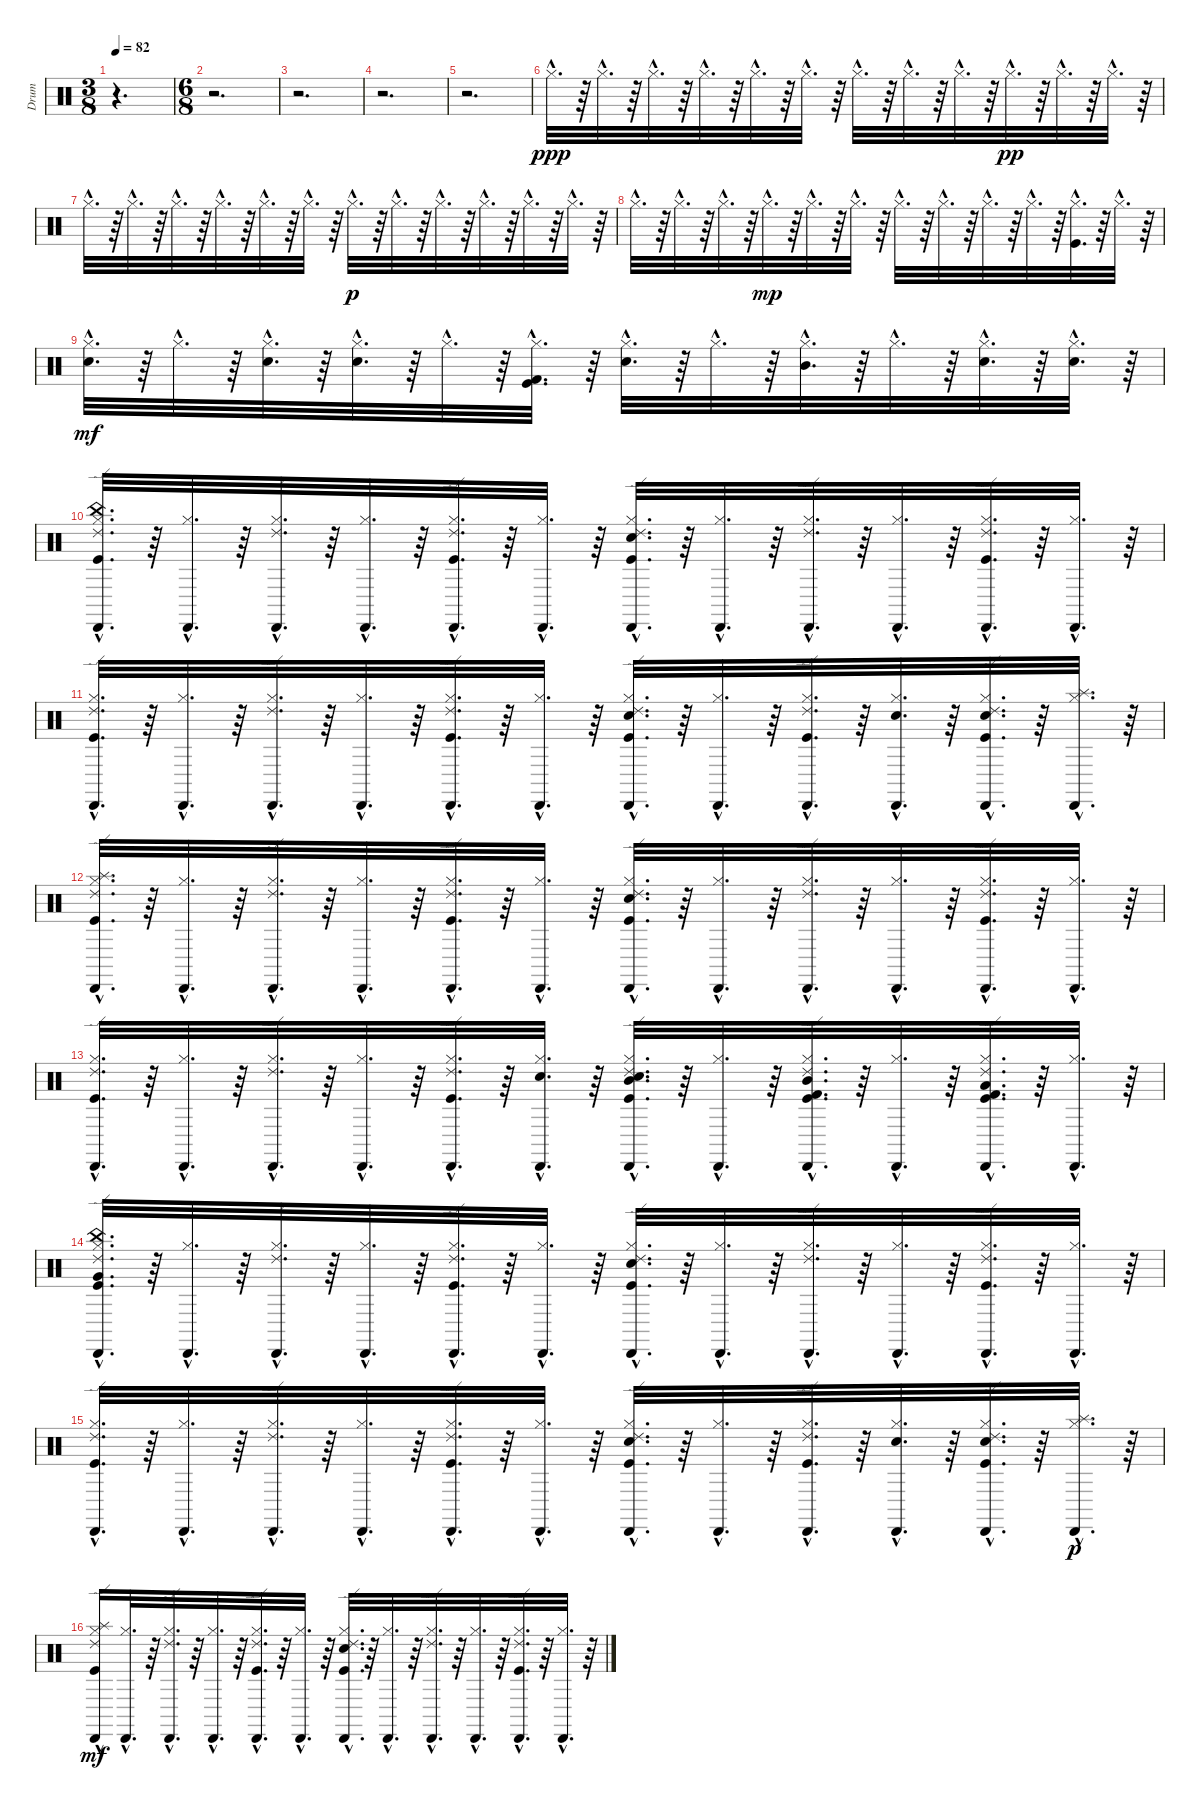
\track ("Drum" "Drum") {instrument percussion}
\staff {score}
\articulation defaults
\ts (3 8)
\tempo 82
\clef neutral
\ks c
r.4{d dy ppp} |
\ts (6 8)
r.2{d} |
r.2{d} |
r.2{d} |
r.2{d} |
"Hi-Hat (closed)"{hac}.32{d} r.64 "Hi-Hat (closed)"{hac}.32{d} r.64 "Hi-Hat (closed)"{hac}.32{d} r.64 "Hi-Hat (closed)"{hac}.32{d} r.64 "Hi-Hat (closed)"{hac}.32{d} r.64 "Hi-Hat (closed)"{hac}.32{d} r.64 "Hi-Hat (closed)"{hac}.32{d} r.64 "Hi-Hat (closed)"{hac}.32{d} r.64 "Hi-Hat (closed)"{hac}.32{d} r.64 "Hi-Hat (closed)"{hac}.32{d dy pp} r.64 "Hi-Hat (closed)"{hac}.32{d} r.64 "Hi-Hat (closed)"{hac}.32{d} r.64 |
"Hi-Hat (closed)"{hac}.32{d} r.64 "Hi-Hat (closed)"{hac}.32{d} r.64 "Hi-Hat (closed)"{hac}.32{d} r.64 "Hi-Hat (closed)"{hac}.32{d} r.64 "Hi-Hat (closed)"{hac}.32{d} r.64 "Hi-Hat (closed)"{hac}.32{d} r.64 "Hi-Hat (closed)"{hac}.32{d dy p} r.64 "Hi-Hat (closed)"{hac}.32{d} r.64 "Hi-Hat (closed)"{hac}.32{d} r.64 "Hi-Hat (closed)"{hac}.32{d} r.64 "Hi-Hat (closed)"{hac}.32{d} r.64 "Hi-Hat (closed)"{hac}.32{d} r.64 |
"Hi-Hat (closed)"{hac}.32{d} r.64 "Hi-Hat (closed)"{hac}.32{d} r.64 "Hi-Hat (closed)"{hac}.32{d} r.64 "Hi-Hat (closed)"{hac}.32{d dy mp} r.64 "Hi-Hat (closed)"{hac}.32{d} r.64 "Hi-Hat (closed)"{hac}.32{d} r.64 "Hi-Hat (closed)"{hac}.32{d} r.64 "Hi-Hat (closed)"{hac}.32{d} r.64 "Hi-Hat (closed)"{hac}.32{d} r.64 "Hi-Hat (closed)"{hac}.32{d} r.64 ("Kick (hit)"{hac} "Hi-Hat (closed)"{hac}).32{d} r.64 "Hi-Hat (closed)"{hac}.32{d} r.64 |
("Snare (hit) 2"{hac} "Hi-Hat (closed)"{hac}).32{d dy mf} r.64 "Hi-Hat (closed)"{hac}.32{d} r.64 ("Snare (hit) 2"{hac} "Hi-Hat (closed)"{hac}).32{d} r.64 ("Snare (hit) 2"{hac} "Hi-Hat (closed)"{hac}).32{d} r.64 "Hi-Hat (closed)"{hac}.32{d} r.64 ("Kick (hit) 2"{hac} "Kick (hit)"{hac} "Hi-Hat (closed)"{hac}).32{d} r.64 ("Snare (hit) 2"{hac} "Hi-Hat (closed)"{hac}).32{d} r.64 "Hi-Hat (closed)"{hac}.32{d} r.64 ("Mid Tom (hit)"{hac} "Hi-Hat (closed)"{hac}).32{d} r.64 "Hi-Hat (closed)"{hac}.32{d} r.64 ("Snare (hit) 2"{hac} "Hi-Hat (closed)"{hac}).32{d} r.64 ("Snare (hit) 2"{hac} "Hi-Hat (closed)"{hac}).32{d} r.64 |
("Cabasa (hit)"{hac} "Ride (edge) 2"{hac} "China (hit)"{hac} "Kick (hit)"{hac} "Hi-Hat (closed)"{hac}).32{d} r.64 ("Cabasa (hit)"{hac} "Hi-Hat (closed)"{hac}).32{d} r.64 ("Cabasa (hit)"{hac} "Ride (edge) 2"{hac} "Hi-Hat (closed)"{hac}).32{d} r.64 ("Cabasa (hit)"{hac} "Hi-Hat (closed)"{hac}).32{d} r.64 ("Cabasa (hit)"{hac} "Ride (edge) 2"{hac} "Kick (hit)"{hac} "Hi-Hat (closed)"{hac}).32{d} r.64 ("Cabasa (hit)"{hac} "Hi-Hat (closed)"{hac}).32{d} r.64 ("Cabasa (hit)"{hac} "Ride (edge) 2"{hac} "Kick (hit)"{hac} "Snare (hit) 2"{hac} "Hi-Hat (closed)"{hac}).32{d} r.64 ("Cabasa (hit)"{hac} "Hi-Hat (closed)"{hac}).32{d} r.64 ("Cabasa (hit)"{hac} "Ride (edge) 2"{hac} "Hi-Hat (closed)"{hac}).32{d} r.64 ("Cabasa (hit)"{hac} "Hi-Hat (closed)"{hac}).32{d} r.64 ("Cabasa (hit)"{hac} "Ride (edge) 2"{hac} "Kick (hit)"{hac} "Hi-Hat (closed)"{hac}).32{d} r.64 ("Cabasa (hit)"{hac} "Hi-Hat (closed)"{hac}).32{d} r.64 |
("Cabasa (hit)"{hac} "Ride (edge) 2"{hac} "Kick (hit)"{hac} "Hi-Hat (closed)"{hac}).32{d} r.64 ("Cabasa (hit)"{hac} "Hi-Hat (closed)"{hac}).32{d} r.64 ("Cabasa (hit)"{hac} "Ride (edge) 2"{hac} "Hi-Hat (closed)"{hac}).32{d} r.64 ("Cabasa (hit)"{hac} "Hi-Hat (closed)"{hac}).32{d} r.64 ("Cabasa (hit)"{hac} "Ride (edge) 2"{hac} "Kick (hit)"{hac} "Hi-Hat (closed)"{hac}).32{d} r.64 ("Cabasa (hit)"{hac} "Hi-Hat (closed)"{hac}).32{d} r.64 ("Cabasa (hit)"{hac} "Ride (edge) 2"{hac} "Kick (hit)"{hac} "Snare (hit) 2"{hac} "Hi-Hat (closed)"{hac}).32{d} r.64 ("Cabasa (hit)"{hac} "Hi-Hat (closed)"{hac}).32{d} r.64 ("Cabasa (hit)"{hac} "Ride (edge) 2"{hac} "Kick (hit)"{hac} "Hi-Hat (closed)"{hac}).32{d} r.64 ("Cabasa (hit)"{hac} "Snare (hit) 2"{hac} "Hi-Hat (closed)"{hac}).32{d} r.64 ("Cabasa (hit)"{hac} "Ride (edge) 2"{hac} "Kick (hit)"{hac} "Snare (hit) 2"{hac} "Hi-Hat (closed)"{hac}).32{d} r.64 ("Cabasa (hit)"{hac} "Splash (hit)"{hac} "Hi-Hat (closed)"{hac}).32{d} r.64 |
("Hi-Hat (closed)"{hac} "Kick (hit)"{hac} "Splash (hit)"{hac} "Ride (edge) 2"{hac} "Cabasa (hit)"{hac}).32{d} r.64 ("Hi-Hat (closed)"{hac} "Cabasa (hit)"{hac}).32{d} r.64 ("Hi-Hat (closed)"{hac} "Ride (edge) 2"{hac} "Cabasa (hit)"{hac}).32{d} r.64 ("Hi-Hat (closed)"{hac} "Cabasa (hit)"{hac}).32{d} r.64 ("Hi-Hat (closed)"{hac} "Kick (hit)"{hac} "Ride (edge) 2"{hac} "Cabasa (hit)"{hac}).32{d} r.64 ("Hi-Hat (closed)"{hac} "Cabasa (hit)"{hac}).32{d} r.64 ("Hi-Hat (closed)"{hac} "Snare (hit) 2"{hac} "Kick (hit)"{hac} "Ride (edge) 2"{hac} "Cabasa (hit)"{hac}).32{d} r.64 ("Hi-Hat (closed)"{hac} "Cabasa (hit)"{hac}).32{d} r.64 ("Hi-Hat (closed)"{hac} "Ride (edge) 2"{hac} "Cabasa (hit)"{hac}).32{d} r.64 ("Hi-Hat (closed)"{hac} "Cabasa (hit)"{hac}).32{d} r.64 ("Hi-Hat (closed)"{hac} "Kick (hit)"{hac} "Ride (edge) 2"{hac} "Cabasa (hit)"{hac}).32{d} r.64 ("Hi-Hat (closed)"{hac} "Cabasa (hit)"{hac}).32{d} r.64 |
("Cabasa (hit)"{hac} "Ride (edge) 2"{hac} "Kick (hit)"{hac} "Hi-Hat (closed)"{hac}).32{d} r.64 ("Cabasa (hit)"{hac} "Hi-Hat (closed)"{hac}).32{d} r.64 ("Cabasa (hit)"{hac} "Ride (edge) 2"{hac} "Hi-Hat (closed)"{hac}).32{d} r.64 ("Cabasa (hit)"{hac} "Hi-Hat (closed)"{hac}).32{d} r.64 ("Cabasa (hit)"{hac} "Ride (edge) 2"{hac} "Kick (hit)"{hac} "Hi-Hat (closed)"{hac}).32{d} r.64 ("Cabasa (hit)"{hac} "Snare (hit) 2"{hac} "Hi-Hat (closed)"{hac}).32{d} r.64 ("Cabasa (hit)"{hac} "Ride (edge) 2"{hac} "Mid Tom (hit)"{hac} "Kick (hit)"{hac} "Snare (hit) 2"{hac} "Hi-Hat (closed)"{hac}).32{d} r.64 ("Cabasa (hit)"{hac} "Hi-Hat (closed)"{hac}).32{d} r.64 ("Cabasa (hit)"{hac} "Ride (edge) 2"{hac} "Kick (hit) 2"{hac} "Mid Tom (hit)"{hac} "Kick (hit)"{hac} "Hi-Hat (closed)"{hac}).32{d} r.64 ("Cabasa (hit)"{hac} "Hi-Hat (closed)"{hac}).32{d} r.64 ("Cabasa (hit)"{hac} "Ride (edge) 2"{hac} "Kick (hit) 2"{hac} "Kick (hit)"{hac} "Low Tom (hit)"{hac} "Hi-Hat (closed)"{hac}).32{d} r.64 ("Cabasa (hit)"{hac} "Hi-Hat (closed)"{hac}).32{d} r.64 |
("Very Low Tom (hit)"{hac} "Hi-Hat (closed)"{hac} "Kick (hit)"{hac} "China (hit)"{hac} "Ride (edge) 2"{hac} "Cabasa (hit)"{hac}).32{d} r.64 ("Hi-Hat (closed)"{hac} "Cabasa (hit)"{hac}).32{d} r.64 ("Hi-Hat (closed)"{hac} "Ride (edge) 2"{hac} "Cabasa (hit)"{hac}).32{d} r.64 ("Hi-Hat (closed)"{hac} "Cabasa (hit)"{hac}).32{d} r.64 ("Hi-Hat (closed)"{hac} "Kick (hit)"{hac} "Ride (edge) 2"{hac} "Cabasa (hit)"{hac}).32{d} r.64 ("Hi-Hat (closed)"{hac} "Cabasa (hit)"{hac}).32{d} r.64 ("Hi-Hat (closed)"{hac} "Snare (hit) 2"{hac} "Kick (hit)"{hac} "Ride (edge) 2"{hac} "Cabasa (hit)"{hac}).32{d} r.64 ("Hi-Hat (closed)"{hac} "Cabasa (hit)"{hac}).32{d} r.64 ("Hi-Hat (closed)"{hac} "Ride (edge) 2"{hac} "Cabasa (hit)"{hac}).32{d} r.64 ("Hi-Hat (closed)"{hac} "Cabasa (hit)"{hac}).32{d} r.64 ("Hi-Hat (closed)"{hac} "Kick (hit)"{hac} "Ride (edge) 2"{hac} "Cabasa (hit)"{hac}).32{d} r.64 ("Hi-Hat (closed)"{hac} "Cabasa (hit)"{hac}).32{d} r.64 |
("Hi-Hat (closed)"{hac} "Kick (hit)"{hac} "Ride (edge) 2"{hac} "Cabasa (hit)"{hac}).32{d} r.64 ("Hi-Hat (closed)"{hac} "Cabasa (hit)"{hac}).32{d} r.64 ("Hi-Hat (closed)"{hac} "Ride (edge) 2"{hac} "Cabasa (hit)"{hac}).32{d} r.64 ("Hi-Hat (closed)"{hac} "Cabasa (hit)"{hac}).32{d} r.64 ("Hi-Hat (closed)"{hac} "Kick (hit)"{hac} "Ride (edge) 2"{hac} "Cabasa (hit)"{hac}).32{d} r.64 ("Hi-Hat (closed)"{hac} "Cabasa (hit)"{hac}).32{d} r.64 ("Hi-Hat (closed)"{hac} "Snare (hit) 2"{hac} "Kick (hit)"{hac} "Ride (edge) 2"{hac} "Cabasa (hit)"{hac}).32{d} r.64 ("Hi-Hat (closed)"{hac} "Cabasa (hit)"{hac}).32{d} r.64 ("Hi-Hat (closed)"{hac} "Kick (hit)"{hac} "Ride (edge) 2"{hac} "Cabasa (hit)"{hac}).32{d} r.64 ("Hi-Hat (closed)"{hac} "Snare (hit) 2"{hac} "Cabasa (hit)"{hac}).32{d} r.64 ("Hi-Hat (closed)"{hac} "Snare (hit) 2"{hac} "Kick (hit)"{hac} "Ride (edge) 2"{hac} "Cabasa (hit)"{hac}).32{d} r.64 ("Hi-Hat (closed)"{hac} "Splash (hit)"{hac} "Cabasa (hit)"{hac}).32{d dy p} r.64 |
("Cabasa (hit)"{hac} "Ride (edge) 2"{hac} "Splash (hit)" "Kick (hit)"{hac} "Hi-Hat (closed)"{hac}).16{dy mf} ("Cabasa (hit)"{hac} "Hi-Hat (closed)"{hac}).32{d} r.64 ("Cabasa (hit)"{hac} "Ride (edge) 2"{hac} "Hi-Hat (closed)"{hac}).32{d} r.64 ("Cabasa (hit)"{hac} "Hi-Hat (closed)"{hac}).32{d} r.64 ("Cabasa (hit)"{hac} "Ride (edge) 2"{hac} "Kick (hit)"{hac} "Hi-Hat (closed)"{hac}).32{d} r.64 ("Cabasa (hit)"{hac} "Hi-Hat (closed)"{hac}).32{d} r.64 ("Cabasa (hit)"{hac} "Ride (edge) 2"{hac} "Kick (hit)"{hac} "Snare (hit) 2"{hac} "Hi-Hat (closed)"{hac}).32{d} r.64 ("Cabasa (hit)"{hac} "Hi-Hat (closed)"{hac}).32{d} r.64 ("Cabasa (hit)"{hac} "Ride (edge) 2"{hac} "Hi-Hat (closed)"{hac}).32{d} r.64 ("Cabasa (hit)"{hac} "Hi-Hat (closed)"{hac}).32{d} r.64 ("Cabasa (hit)"{hac} "Ride (edge) 2"{hac} "Kick (hit)"{hac} "Hi-Hat (closed)"{hac}).32{d} r.64 ("Cabasa (hit)"{hac} "Hi-Hat (closed)"{hac}).32{d} r.64
